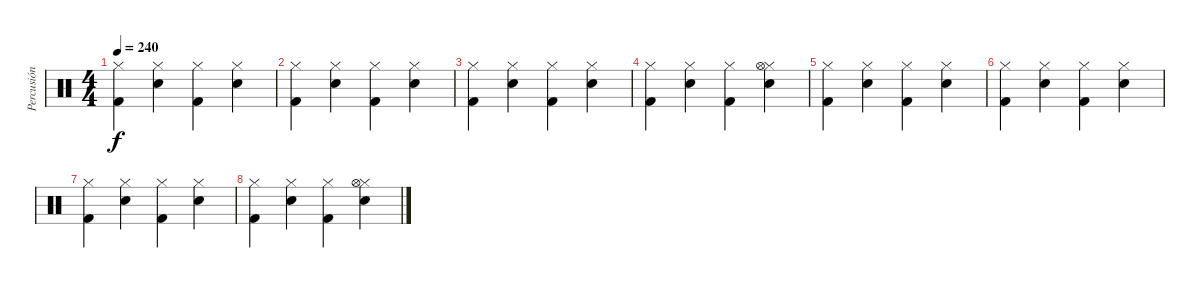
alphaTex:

\track ("Percusión" "Percusión") {instrument percussion}
\staff {score}
\articulation defaults
\ts (4 4)
\tempo 240
\clef neutral
\ks c
("Hi-Hat (closed)" "Kick (hit) 2").4{dy f} ("Snare (hit) 2" "Hi-Hat (closed)").4 ("Hi-Hat (closed)" "Kick (hit) 2").4 ("Snare (hit) 2" "Hi-Hat (closed)").4 |
("Hi-Hat (closed)" "Kick (hit) 2").4 ("Snare (hit) 2" "Hi-Hat (closed)").4 ("Hi-Hat (closed)" "Kick (hit) 2").4 ("Snare (hit) 2" "Hi-Hat (closed)").4 |
("Hi-Hat (closed)" "Kick (hit) 2").4 ("Snare (hit) 2" "Hi-Hat (closed)").4 ("Hi-Hat (closed)" "Kick (hit) 2").4 ("Snare (hit) 2" "Hi-Hat (closed)").4 |
("Hi-Hat (closed)" "Kick (hit) 2").4 ("Snare (hit) 2" "Hi-Hat (closed)").4 ("Hi-Hat (closed)" "Kick (hit) 2").4 ("Snare (hit) 2" "Hi-Hat (closed)" "Hi-Hat (open)").4 |
("Hi-Hat (closed)" "Kick (hit) 2").4 ("Snare (hit) 2" "Hi-Hat (closed)").4 ("Hi-Hat (closed)" "Kick (hit) 2").4 ("Snare (hit) 2" "Hi-Hat (closed)").4 |
("Hi-Hat (closed)" "Kick (hit) 2").4 ("Snare (hit) 2" "Hi-Hat (closed)").4 ("Hi-Hat (closed)" "Kick (hit) 2").4 ("Snare (hit) 2" "Hi-Hat (closed)").4 |
("Hi-Hat (closed)" "Kick (hit) 2").4 ("Snare (hit) 2" "Hi-Hat (closed)").4 ("Hi-Hat (closed)" "Kick (hit) 2").4 ("Snare (hit) 2" "Hi-Hat (closed)").4 |
("Hi-Hat (closed)" "Kick (hit) 2").4 ("Snare (hit) 2" "Hi-Hat (closed)").4 ("Hi-Hat (closed)" "Kick (hit) 2").4 ("Snare (hit) 2" "Hi-Hat (closed)" "Hi-Hat (open)").4
